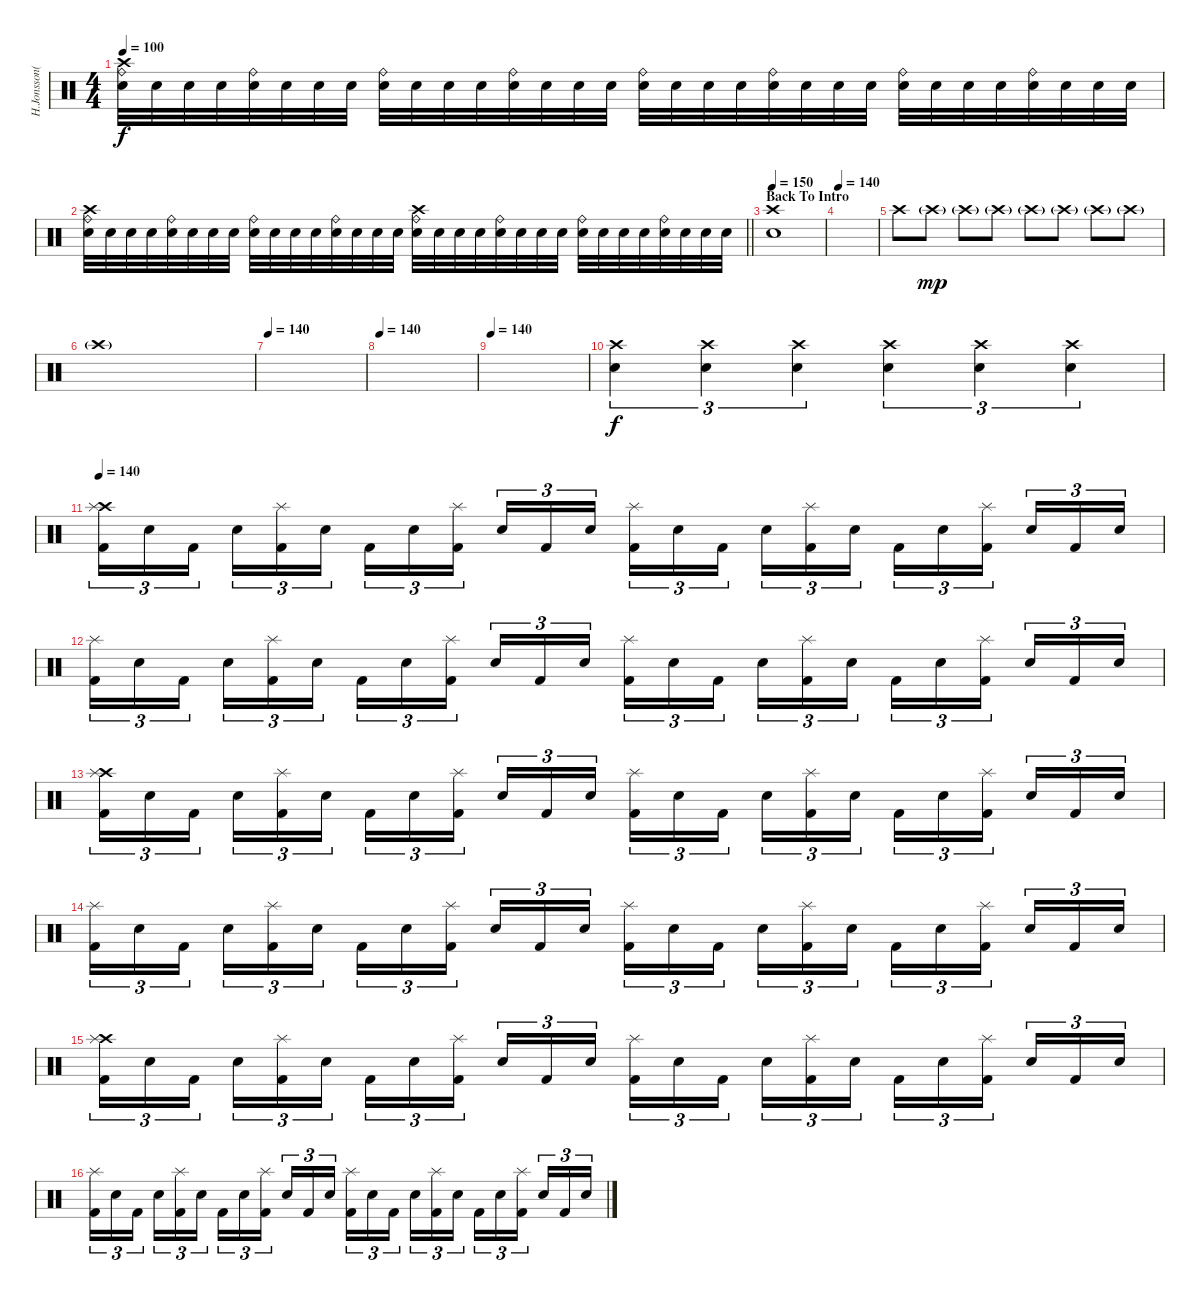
\track ("H.Jonsson(Drums)" "H.Jonsson(") {instrument percussion}
\staff {score}
\articulation defaults
\ts (4 4)
\tempo 100
\clef neutral
\ks c
("Crash high (hit)" "Ride (bell)" "Snare (hit) 2").32{dy f} "Electric Snare (hit)".32 "Snare (hit) 2".32 "Electric Snare (hit)".32 ("Ride (bell)" "Snare (hit) 2").32 "Electric Snare (hit)".32 "Snare (hit) 2".32 "Electric Snare (hit)".32 ("Ride (bell)" "Snare (hit) 2").32 "Electric Snare (hit)".32 "Snare (hit) 2".32 "Electric Snare (hit)".32 ("Ride (bell)" "Snare (hit) 2").32 "Electric Snare (hit)".32 "Snare (hit) 2".32 "Electric Snare (hit)".32 ("Ride (bell)" "Snare (hit) 2").32 "Electric Snare (hit)".32 "Snare (hit) 2".32 "Electric Snare (hit)".32 ("Ride (bell)" "Snare (hit) 2").32 "Electric Snare (hit)".32 "Snare (hit) 2".32 "Electric Snare (hit)".32 ("Ride (bell)" "Snare (hit) 2").32 "Electric Snare (hit)".32 "Snare (hit) 2".32 "Electric Snare (hit)".32 ("Ride (bell)" "Snare (hit) 2").32 "Electric Snare (hit)".32 "Snare (hit) 2".32 "Electric Snare (hit)".32 |
\barLineRight lightlight
("Crash high (hit)" "Ride (bell)" "Snare (hit) 2").32 "Electric Snare (hit)".32 "Snare (hit) 2".32 "Electric Snare (hit)".32 ("Ride (bell)" "Snare (hit) 2").32 "Electric Snare (hit)".32 "Snare (hit) 2".32 "Electric Snare (hit)".32 ("Ride (bell)" "Snare (hit) 2").32 "Electric Snare (hit)".32 "Snare (hit) 2".32 "Electric Snare (hit)".32 ("Ride (bell)" "Snare (hit) 2").32 "Electric Snare (hit)".32 "Snare (hit) 2".32 "Electric Snare (hit)".32 ("Crash high (hit)" "Ride (bell)" "Snare (hit) 2").32 "Electric Snare (hit)".32 "Snare (hit) 2".32 "Electric Snare (hit)".32 ("Ride (bell)" "Snare (hit) 2").32 "Electric Snare (hit)".32 "Snare (hit) 2".32 "Electric Snare (hit)".32 ("Ride (bell)" "Snare (hit) 2").32 "Electric Snare (hit)".32 "Snare (hit) 2".32 "Electric Snare (hit)".32 ("Ride (bell)" "Snare (hit) 2").32 "Electric Snare (hit)".32 "Snare (hit) 2".32 "Electric Snare (hit)".32 |
\section ("" "Back To Intro")
\tempo 140
\tempo 150
("Crash high (hit)" "Snare (hit) 2").1 |
\tempo 140
|
"Crash high (hit)".8 "Crash high (hit)"{g}.8{dy mp} "Crash high (hit)"{g}.8 "Crash high (hit)"{g}.8 "Crash high (hit)"{g}.8 "Crash high (hit)"{g}.8 "Crash high (hit)"{g}.8 "Crash high (hit)"{g}.8 |
"Crash high (hit)"{g}.1 |
\tempo 140
|
\tempo 140
|
\tempo 140
|
("Crash high (hit)" "Snare (hit) 2").4{tu (3 2) dy f} ("Crash high (hit)" "Snare (hit) 2").4{tu (3 2)} ("Crash high (hit)" "Snare (hit) 2").4{tu (3 2)} ("Crash high (hit)" "Snare (hit) 2").4{tu (3 2)} ("Crash high (hit)" "Snare (hit) 2").4{tu (3 2)} ("Crash high (hit)" "Snare (hit) 2").4{tu (3 2)} |
\tempo 140
("Crash high (hit)" "Splash (hit)" "Kick (hit) 2").16{tu (3 2)} "Electric Snare (hit)".16{tu (3 2)} "Kick (hit) 2".16{tu (3 2) beam splitsecondary} "Electric Snare (hit)".16{tu (3 2)} ("Splash (hit)" "Kick (hit) 2").16{tu (3 2)} "Electric Snare (hit)".16{tu (3 2)} "Kick (hit) 2".16{tu (3 2)} "Electric Snare (hit)".16{tu (3 2)} ("Splash (hit)" "Kick (hit) 2").16{tu (3 2) beam splitsecondary} "Electric Snare (hit)".16{tu (3 2)} "Kick (hit) 2".16{tu (3 2)} "Electric Snare (hit)".16{tu (3 2)} ("Splash (hit)" "Kick (hit) 2").16{tu (3 2)} "Electric Snare (hit)".16{tu (3 2)} "Kick (hit) 2".16{tu (3 2) beam splitsecondary} "Electric Snare (hit)".16{tu (3 2)} ("Splash (hit)" "Kick (hit) 2").16{tu (3 2)} "Electric Snare (hit)".16{tu (3 2)} "Kick (hit) 2".16{tu (3 2)} "Electric Snare (hit)".16{tu (3 2)} ("Splash (hit)" "Kick (hit) 2").16{tu (3 2) beam splitsecondary} "Electric Snare (hit)".16{tu (3 2)} "Kick (hit) 2".16{tu (3 2)} "Electric Snare (hit)".16{tu (3 2)} |
("Splash (hit)" "Kick (hit) 2").16{tu (3 2)} "Electric Snare (hit)".16{tu (3 2)} "Kick (hit) 2".16{tu (3 2) beam splitsecondary} "Electric Snare (hit)".16{tu (3 2)} ("Splash (hit)" "Kick (hit) 2").16{tu (3 2)} "Electric Snare (hit)".16{tu (3 2)} "Kick (hit) 2".16{tu (3 2)} "Electric Snare (hit)".16{tu (3 2)} ("Splash (hit)" "Kick (hit) 2").16{tu (3 2) beam splitsecondary} "Electric Snare (hit)".16{tu (3 2)} "Kick (hit) 2".16{tu (3 2)} "Electric Snare (hit)".16{tu (3 2)} ("Splash (hit)" "Kick (hit) 2").16{tu (3 2)} "Electric Snare (hit)".16{tu (3 2)} "Kick (hit) 2".16{tu (3 2) beam splitsecondary} "Electric Snare (hit)".16{tu (3 2)} ("Splash (hit)" "Kick (hit) 2").16{tu (3 2)} "Electric Snare (hit)".16{tu (3 2)} "Kick (hit) 2".16{tu (3 2)} "Electric Snare (hit)".16{tu (3 2)} ("Splash (hit)" "Kick (hit) 2").16{tu (3 2) beam splitsecondary} "Electric Snare (hit)".16{tu (3 2)} "Kick (hit) 2".16{tu (3 2)} "Electric Snare (hit)".16{tu (3 2)} |
("Crash high (hit)" "Splash (hit)" "Kick (hit) 2").16{tu (3 2)} "Electric Snare (hit)".16{tu (3 2)} "Kick (hit) 2".16{tu (3 2) beam splitsecondary} "Electric Snare (hit)".16{tu (3 2)} ("Splash (hit)" "Kick (hit) 2").16{tu (3 2)} "Electric Snare (hit)".16{tu (3 2)} "Kick (hit) 2".16{tu (3 2)} "Electric Snare (hit)".16{tu (3 2)} ("Splash (hit)" "Kick (hit) 2").16{tu (3 2) beam splitsecondary} "Electric Snare (hit)".16{tu (3 2)} "Kick (hit) 2".16{tu (3 2)} "Electric Snare (hit)".16{tu (3 2)} ("Splash (hit)" "Kick (hit) 2").16{tu (3 2)} "Electric Snare (hit)".16{tu (3 2)} "Kick (hit) 2".16{tu (3 2) beam splitsecondary} "Electric Snare (hit)".16{tu (3 2)} ("Splash (hit)" "Kick (hit) 2").16{tu (3 2)} "Electric Snare (hit)".16{tu (3 2)} "Kick (hit) 2".16{tu (3 2)} "Electric Snare (hit)".16{tu (3 2)} ("Splash (hit)" "Kick (hit) 2").16{tu (3 2) beam splitsecondary} "Electric Snare (hit)".16{tu (3 2)} "Kick (hit) 2".16{tu (3 2)} "Electric Snare (hit)".16{tu (3 2)} |
("Splash (hit)" "Kick (hit) 2").16{tu (3 2)} "Electric Snare (hit)".16{tu (3 2)} "Kick (hit) 2".16{tu (3 2) beam splitsecondary} "Electric Snare (hit)".16{tu (3 2)} ("Splash (hit)" "Kick (hit) 2").16{tu (3 2)} "Electric Snare (hit)".16{tu (3 2)} "Kick (hit) 2".16{tu (3 2)} "Electric Snare (hit)".16{tu (3 2)} ("Splash (hit)" "Kick (hit) 2").16{tu (3 2) beam splitsecondary} "Electric Snare (hit)".16{tu (3 2)} "Kick (hit) 2".16{tu (3 2)} "Electric Snare (hit)".16{tu (3 2)} ("Splash (hit)" "Kick (hit) 2").16{tu (3 2)} "Electric Snare (hit)".16{tu (3 2)} "Kick (hit) 2".16{tu (3 2) beam splitsecondary} "Electric Snare (hit)".16{tu (3 2)} ("Splash (hit)" "Kick (hit) 2").16{tu (3 2)} "Electric Snare (hit)".16{tu (3 2)} "Kick (hit) 2".16{tu (3 2)} "Electric Snare (hit)".16{tu (3 2)} ("Splash (hit)" "Kick (hit) 2").16{tu (3 2) beam splitsecondary} "Electric Snare (hit)".16{tu (3 2)} "Kick (hit) 2".16{tu (3 2)} "Electric Snare (hit)".16{tu (3 2)} |
("Crash high (hit)" "Splash (hit)" "Kick (hit) 2").16{tu (3 2)} "Electric Snare (hit)".16{tu (3 2)} "Kick (hit) 2".16{tu (3 2) beam splitsecondary} "Electric Snare (hit)".16{tu (3 2)} ("Splash (hit)" "Kick (hit) 2").16{tu (3 2)} "Electric Snare (hit)".16{tu (3 2)} "Kick (hit) 2".16{tu (3 2)} "Electric Snare (hit)".16{tu (3 2)} ("Splash (hit)" "Kick (hit) 2").16{tu (3 2) beam splitsecondary} "Electric Snare (hit)".16{tu (3 2)} "Kick (hit) 2".16{tu (3 2)} "Electric Snare (hit)".16{tu (3 2)} ("Splash (hit)" "Kick (hit) 2").16{tu (3 2)} "Electric Snare (hit)".16{tu (3 2)} "Kick (hit) 2".16{tu (3 2) beam splitsecondary} "Electric Snare (hit)".16{tu (3 2)} ("Splash (hit)" "Kick (hit) 2").16{tu (3 2)} "Electric Snare (hit)".16{tu (3 2)} "Kick (hit) 2".16{tu (3 2)} "Electric Snare (hit)".16{tu (3 2)} ("Splash (hit)" "Kick (hit) 2").16{tu (3 2) beam splitsecondary} "Electric Snare (hit)".16{tu (3 2)} "Kick (hit) 2".16{tu (3 2)} "Electric Snare (hit)".16{tu (3 2)} |
("Splash (hit)" "Kick (hit) 2").16{tu (3 2)} "Electric Snare (hit)".16{tu (3 2)} "Kick (hit) 2".16{tu (3 2) beam splitsecondary} "Electric Snare (hit)".16{tu (3 2)} ("Splash (hit)" "Kick (hit) 2").16{tu (3 2)} "Electric Snare (hit)".16{tu (3 2)} "Kick (hit) 2".16{tu (3 2)} "Electric Snare (hit)".16{tu (3 2)} ("Splash (hit)" "Kick (hit) 2").16{tu (3 2) beam splitsecondary} "Electric Snare (hit)".16{tu (3 2)} "Kick (hit) 2".16{tu (3 2)} "Electric Snare (hit)".16{tu (3 2)} ("Splash (hit)" "Kick (hit) 2").16{tu (3 2)} "Electric Snare (hit)".16{tu (3 2)} "Kick (hit) 2".16{tu (3 2) beam splitsecondary} "Electric Snare (hit)".16{tu (3 2)} ("Splash (hit)" "Kick (hit) 2").16{tu (3 2)} "Electric Snare (hit)".16{tu (3 2)} "Kick (hit) 2".16{tu (3 2)} "Electric Snare (hit)".16{tu (3 2)} ("Splash (hit)" "Kick (hit) 2").16{tu (3 2) beam splitsecondary} "Electric Snare (hit)".16{tu (3 2)} "Kick (hit) 2".16{tu (3 2)} "Electric Snare (hit)".16{tu (3 2)}
